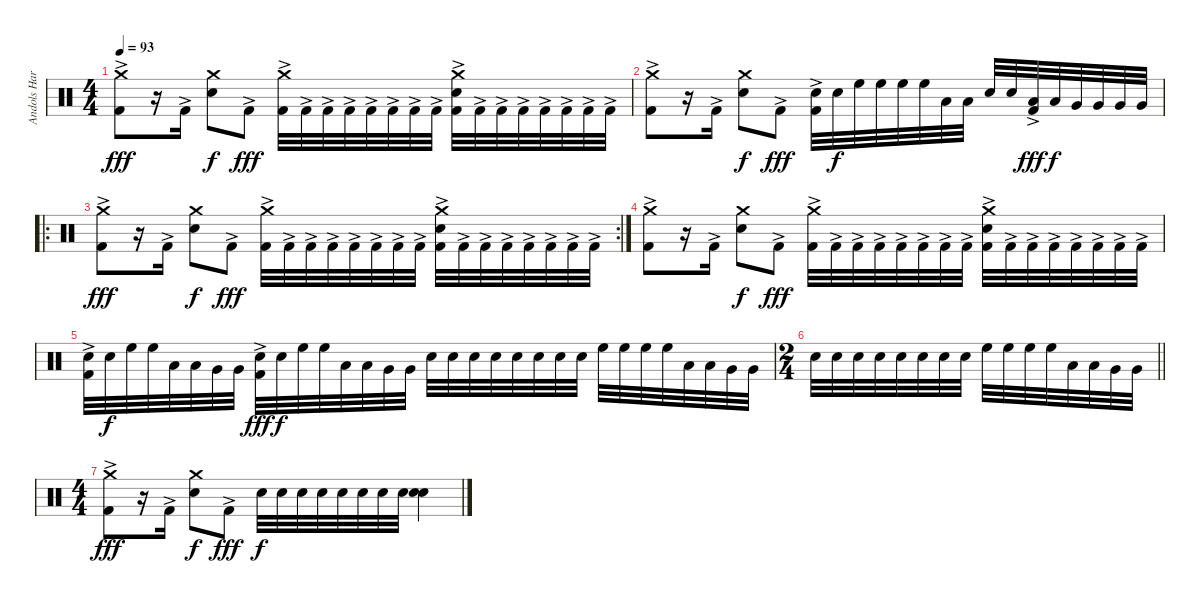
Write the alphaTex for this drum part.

\track ("Andols Harrick" "Andols Har") {instrument percussion}
\staff {score}
\articulation defaults
\ts (4 4)
\tempo 93
\clef neutral
\ks c
("Crash medium (hit)" "Kick (hit) 2"{ac}).8{dy fff} r.16 "Kick (hit) 2"{ac}.16 ("Crash medium (hit)" "Electric Snare (hit)").8{dy f} "Kick (hit) 2"{ac}.8{dy fff} ("Crash medium (hit)" "Kick (hit) 2"{ac}).32 "Kick (hit) 2"{ac}.32 "Kick (hit) 2"{ac}.32 "Kick (hit) 2"{ac}.32 "Kick (hit) 2"{ac}.32 "Kick (hit) 2"{ac}.32 "Kick (hit) 2"{ac}.32 "Kick (hit) 2"{ac}.32 ("Crash medium (hit)" "Electric Snare (hit)" "Kick (hit) 2"{ac}).32 "Kick (hit) 2"{ac}.32 "Kick (hit) 2"{ac}.32 "Kick (hit) 2"{ac}.32 "Kick (hit) 2"{ac}.32 "Kick (hit) 2"{ac}.32 "Kick (hit) 2"{ac}.32 "Kick (hit) 2"{ac}.32 |
("Crash medium (hit)" "Kick (hit) 2"{ac}).8 r.16 "Kick (hit) 2"{ac}.16 ("Crash medium (hit)" "Electric Snare (hit)").8{dy f} "Kick (hit) 2"{ac}.8{dy fff} ("Electric Snare (hit)" "Kick (hit) 2"{ac}).32 "Electric Snare (hit)".32{dy f} "High Floor Tom (hit)".32 "High Floor Tom (hit)".32 "High Floor Tom (hit)".32 "High Floor Tom (hit)".32 "Low Tom (hit)".32 "Low Tom (hit)".32 "Electric Snare (hit)".32 "Electric Snare (hit)".32 ("Low Tom (hit)" "Kick (hit) 2"{ac}).32{dy fff} "Low Tom (hit)".32{dy f} "Very Low Tom (hit)".32 "Very Low Tom (hit)".32 "Very Low Tom (hit)".32 "Very Low Tom (hit)".32 |
\ro
\rc 2
("Crash medium (hit)" "Kick (hit) 2"{ac}).8{dy fff} r.16 "Kick (hit) 2"{ac}.16 ("Crash medium (hit)" "Electric Snare (hit)").8{dy f} "Kick (hit) 2"{ac}.8{dy fff} ("Crash medium (hit)" "Kick (hit) 2"{ac}).32 "Kick (hit) 2"{ac}.32 "Kick (hit) 2"{ac}.32 "Kick (hit) 2"{ac}.32 "Kick (hit) 2"{ac}.32 "Kick (hit) 2"{ac}.32 "Kick (hit) 2"{ac}.32 "Kick (hit) 2"{ac}.32 ("Crash medium (hit)" "Electric Snare (hit)" "Kick (hit) 2"{ac}).32 "Kick (hit) 2"{ac}.32 "Kick (hit) 2"{ac}.32 "Kick (hit) 2"{ac}.32 "Kick (hit) 2"{ac}.32 "Kick (hit) 2"{ac}.32 "Kick (hit) 2"{ac}.32 "Kick (hit) 2"{ac}.32 |
("Crash medium (hit)" "Kick (hit) 2"{ac}).8 r.16 "Kick (hit) 2"{ac}.16 ("Crash medium (hit)" "Electric Snare (hit)").8{dy f} "Kick (hit) 2"{ac}.8{dy fff} ("Crash medium (hit)" "Kick (hit) 2"{ac}).32 "Kick (hit) 2"{ac}.32 "Kick (hit) 2"{ac}.32 "Kick (hit) 2"{ac}.32 "Kick (hit) 2"{ac}.32 "Kick (hit) 2"{ac}.32 "Kick (hit) 2"{ac}.32 "Kick (hit) 2"{ac}.32 ("Crash medium (hit)" "Electric Snare (hit)" "Kick (hit) 2"{ac}).32 "Kick (hit) 2"{ac}.32 "Kick (hit) 2"{ac}.32 "Kick (hit) 2"{ac}.32 "Kick (hit) 2"{ac}.32 "Kick (hit) 2"{ac}.32 "Kick (hit) 2"{ac}.32 "Kick (hit) 2"{ac}.32 |
("Electric Snare (hit)" "Kick (hit) 2"{ac}).32 "Electric Snare (hit)".32{dy f} "High Floor Tom (hit)".32 "High Floor Tom (hit)".32 "Low Tom (hit)".32 "Low Tom (hit)".32 "Very Low Tom (hit)".32 "Very Low Tom (hit)".32 ("Electric Snare (hit)" "Kick (hit) 2"{ac}).32{dy fff} "Electric Snare (hit)".32{dy f} "High Floor Tom (hit)".32 "High Floor Tom (hit)".32 "Low Tom (hit)".32 "Low Tom (hit)".32 "Very Low Tom (hit)".32 "Very Low Tom (hit)".32 "Electric Snare (hit)".32 "Electric Snare (hit)".32 "Electric Snare (hit)".32 "Electric Snare (hit)".32 "Electric Snare (hit)".32 "Electric Snare (hit)".32 "Electric Snare (hit)".32 "Electric Snare (hit)".32 "High Floor Tom (hit)".32 "High Floor Tom (hit)".32 "High Floor Tom (hit)".32 "High Floor Tom (hit)".32 "Low Tom (hit)".32 "Low Tom (hit)".32 "Very Low Tom (hit)".32 "Very Low Tom (hit)".32 |
\ts (2 4)
\barLineRight lightlight "Electric Snare (hit)".32 "Electric Snare (hit)".32 "Electric Snare (hit)".32 "Electric Snare (hit)".32 "Electric Snare (hit)".32 "Electric Snare (hit)".32 "Electric Snare (hit)".32 "Electric Snare (hit)".32 "High Floor Tom (hit)".32 "High Floor Tom (hit)".32 "High Floor Tom (hit)".32 "High Floor Tom (hit)".32 "Low Tom (hit)".32 "Low Tom (hit)".32 "Very Low Tom (hit)".32 "Very Low Tom (hit)".32
|
\ts (4 4)
("Crash medium (hit)" "Kick (hit) 2"{ac}).8{dy fff} r.16 "Kick (hit) 2"{ac}.16 ("Crash medium (hit)" "Electric Snare (hit)").8{dy f} "Kick (hit) 2"{ac}.8{dy fff} "Electric Snare (hit)".32{dy f} "Electric Snare (hit)".32 "Electric Snare (hit)".32 "Electric Snare (hit)".32 "Electric Snare (hit)".32 "Electric Snare (hit)".32 "Electric Snare (hit)".32 "Electric Snare (hit)".32 ("Electric Snare (hit)" "Electric Snare (hit)").4
